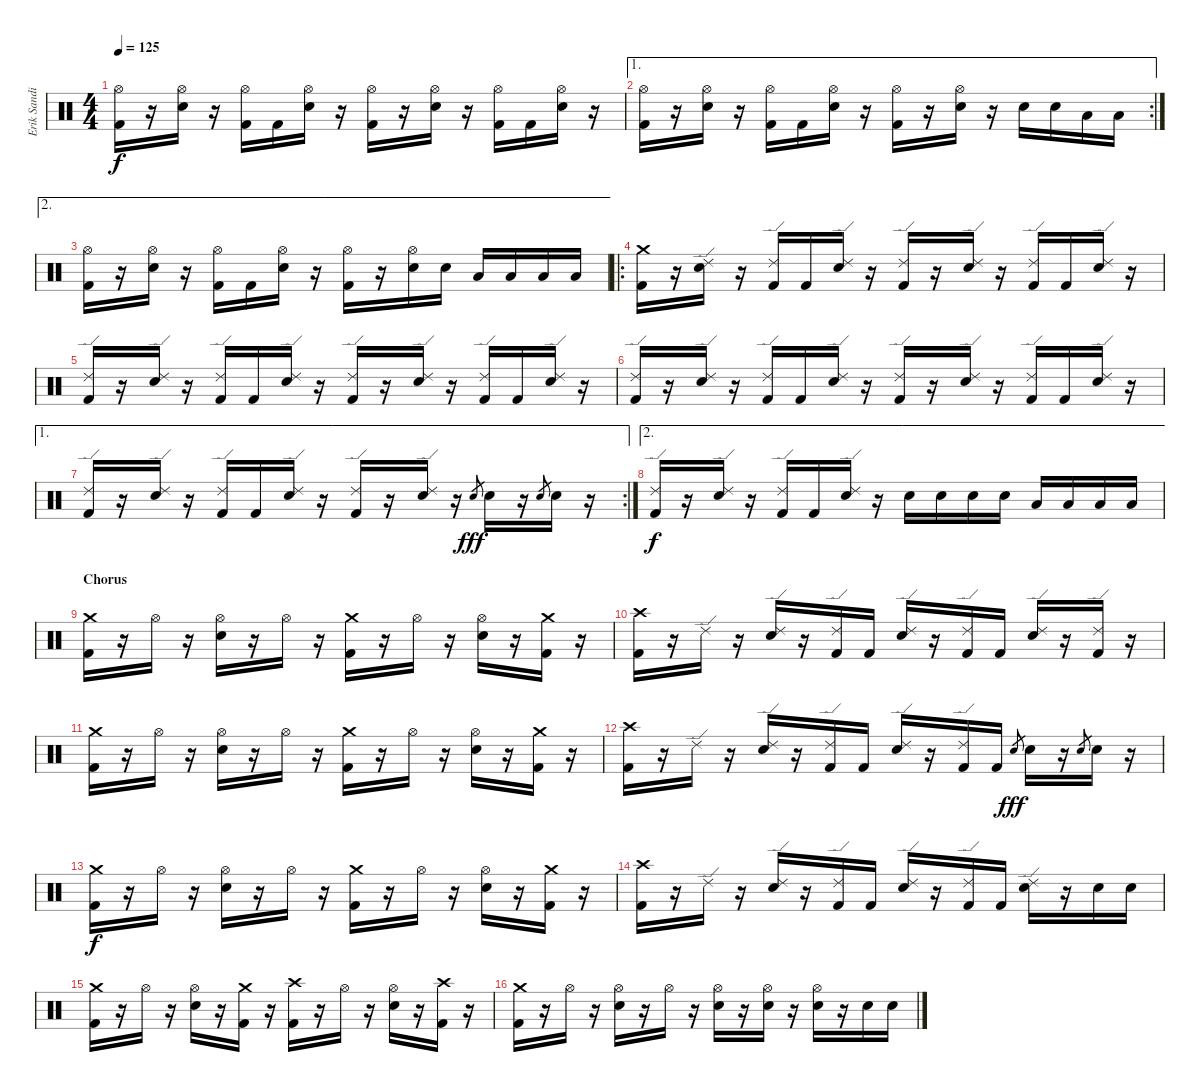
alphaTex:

\track ("Erik Sandin" "Erik Sandi") {instrument percussion}
\staff {score}
\articulation defaults
\ts (4 4)
\tempo 125
\clef neutral
\ks c
("Hi-Hat (open)" "Kick (hit) 2").16{dy f} r.16 ("Hi-Hat (open)" "Snare (hit) 2").16 r.16 ("Hi-Hat (open)" "Kick (hit) 2").16 "Kick (hit) 2".16 ("Hi-Hat (open)" "Snare (hit) 2").16 r.16 ("Hi-Hat (open)" "Kick (hit) 2").16 r.16 ("Hi-Hat (open)" "Snare (hit) 2").16 r.16 ("Hi-Hat (open)" "Kick (hit) 2").16 "Kick (hit) 2".16 ("Hi-Hat (open)" "Snare (hit) 2").16 r.16 |
\ae 1
\rc 2
("Hi-Hat (open)" "Kick (hit) 2").16 r.16 ("Hi-Hat (open)" "Snare (hit) 2").16 r.16 ("Hi-Hat (open)" "Kick (hit) 2").16 "Kick (hit) 2".16 ("Hi-Hat (open)" "Snare (hit) 2").16 r.16 ("Hi-Hat (open)" "Kick (hit) 2").16 r.16 ("Hi-Hat (open)" "Snare (hit) 2").16 r.16 "Snare (hit) 2".16 "Snare (hit) 2".16 "Low Tom (hit)".16 "Low Tom (hit)".16 |
\ae 2
("Hi-Hat (open)" "Kick (hit) 2").16 r.16 ("Hi-Hat (open)" "Snare (hit) 2").16 r.16 ("Hi-Hat (open)" "Kick (hit) 2").16 "Kick (hit) 2".16 ("Hi-Hat (open)" "Snare (hit) 2").16 r.16 ("Hi-Hat (open)" "Kick (hit) 2").16 r.16 ("Hi-Hat (open)" "Snare (hit) 2").16 "Snare (hit) 2".16 "Low Tom (hit)".16 "Low Tom (hit)".16 "Low Floor Tom (hit)".16 "Low Floor Tom (hit)".16 |
\ro
("Crash medium (hit)" "Kick (hit) 2").16 r.16 ("Ride (edge) 2" "Snare (hit) 2").16 r.16 ("Ride (edge) 2" "Kick (hit) 2").16 "Kick (hit) 2".16 ("Ride (edge) 2" "Snare (hit) 2").16 r.16 ("Ride (edge) 2" "Kick (hit) 2").16 r.16 ("Ride (edge) 2" "Snare (hit) 2").16 r.16 ("Ride (edge) 2" "Kick (hit) 2").16 "Kick (hit) 2".16 ("Ride (edge) 2" "Snare (hit) 2").16 r.16 |
("Ride (edge) 2" "Kick (hit) 2").16 r.16 ("Ride (edge) 2" "Snare (hit) 2").16 r.16 ("Ride (edge) 2" "Kick (hit) 2").16 "Kick (hit) 2".16 ("Ride (edge) 2" "Snare (hit) 2").16 r.16 ("Ride (edge) 2" "Kick (hit) 2").16 r.16 ("Ride (edge) 2" "Snare (hit) 2").16 r.16 ("Ride (edge) 2" "Kick (hit) 2").16 "Kick (hit) 2".16 ("Ride (edge) 2" "Snare (hit) 2").16 r.16 |
("Ride (edge) 2" "Kick (hit) 2").16 r.16 ("Ride (edge) 2" "Snare (hit) 2").16 r.16 ("Ride (edge) 2" "Kick (hit) 2").16 "Kick (hit) 2".16 ("Ride (edge) 2" "Snare (hit) 2").16 r.16 ("Ride (edge) 2" "Kick (hit) 2").16 r.16 ("Ride (edge) 2" "Snare (hit) 2").16 r.16 ("Ride (edge) 2" "Kick (hit) 2").16 "Kick (hit) 2".16 ("Ride (edge) 2" "Snare (hit) 2").16 r.16 |
\ae 1
\rc 2
("Ride (edge) 2" "Kick (hit) 2").16 r.16 ("Ride (edge) 2" "Snare (hit) 2").16 r.16 ("Ride (edge) 2" "Kick (hit) 2").16 "Kick (hit) 2".16 ("Ride (edge) 2" "Snare (hit) 2").16 r.16 ("Ride (edge) 2" "Kick (hit) 2").16 r.16 ("Ride (edge) 2" "Snare (hit) 2").16 r.16 "Snare (hit) 2".8{gr dy fff} "Snare (hit) 2".16 r.16 "Snare (hit) 2".8{gr} "Snare (hit) 2".16 r.16 |
\ae 2
("Ride (edge) 2" "Kick (hit) 2").16{dy f} r.16 ("Ride (edge) 2" "Snare (hit) 2").16 r.16 ("Ride (edge) 2" "Kick (hit) 2").16 "Kick (hit) 2".16 ("Ride (edge) 2" "Snare (hit) 2").16 r.16 "Snare (hit) 2".16 "Snare (hit) 2".16 "Snare (hit) 2".16 "Snare (hit) 2".16 "Low Tom (hit)".16 "Low Tom (hit)".16 "Low Tom (hit)".16 "Low Tom (hit)".16 |
\section ("" "Chorus")
("Crash medium (hit)" "Kick (hit) 2").16 r.16 "Hi-Hat (open)".16 r.16 ("Hi-Hat (open)" "Snare (hit) 2").16 r.16 "Hi-Hat (open)".16 r.16 ("Crash medium (hit)" "Kick (hit) 2").16 r.16 "Hi-Hat (open)".16 r.16 ("Hi-Hat (open)" "Snare (hit) 2").16 r.16 ("Crash medium (hit)" "Kick (hit) 2").16 r.16 |
("Crash high (hit)" "Kick (hit) 2").16 r.16 "Ride (edge) 2".16 r.16 ("Ride (edge) 2" "Snare (hit) 2").16 r.16 ("Ride (edge) 2" "Kick (hit) 2").16 "Kick (hit) 2".16 ("Ride (edge) 2" "Snare (hit) 2").16 r.16 ("Ride (edge) 2" "Kick (hit) 2").16 "Kick (hit) 2".16 ("Ride (edge) 2" "Snare (hit) 2").16 r.16 ("Ride (edge) 2" "Kick (hit) 2").16 r.16 |
("Crash medium (hit)" "Kick (hit) 2").16 r.16 "Hi-Hat (open)".16 r.16 ("Hi-Hat (open)" "Snare (hit) 2").16 r.16 "Hi-Hat (open)".16 r.16 ("Crash medium (hit)" "Kick (hit) 2").16 r.16 "Hi-Hat (open)".16 r.16 ("Hi-Hat (open)" "Snare (hit) 2").16 r.16 ("Crash medium (hit)" "Kick (hit) 2").16 r.16 |
("Crash high (hit)" "Kick (hit) 2").16 r.16 "Ride (edge) 2".16 r.16 ("Ride (edge) 2" "Snare (hit) 2").16 r.16 ("Ride (edge) 2" "Kick (hit) 2").16 "Kick (hit) 2".16 ("Ride (edge) 2" "Snare (hit) 2").16 r.16 ("Ride (edge) 2" "Kick (hit) 2").16 "Kick (hit) 2".16 "Snare (hit) 2".8{gr dy fff} "Snare (hit) 2".16 r.16 "Snare (hit) 2".8{gr} "Snare (hit) 2".16 r.16 |
("Crash medium (hit)" "Kick (hit) 2").16{dy f} r.16 "Hi-Hat (open)".16 r.16 ("Hi-Hat (open)" "Snare (hit) 2").16 r.16 "Hi-Hat (open)".16 r.16 ("Crash medium (hit)" "Kick (hit) 2").16 r.16 "Hi-Hat (open)".16 r.16 ("Hi-Hat (open)" "Snare (hit) 2").16 r.16 ("Crash medium (hit)" "Kick (hit) 2").16 r.16 |
("Crash high (hit)" "Kick (hit) 2").16 r.16 "Ride (edge) 2".16 r.16 ("Ride (edge) 2" "Snare (hit) 2").16 r.16 ("Ride (edge) 2" "Kick (hit) 2").16 "Kick (hit) 2".16 ("Ride (edge) 2" "Snare (hit) 2").16 r.16 ("Ride (edge) 2" "Kick (hit) 2").16 "Kick (hit) 2".16 ("Ride (edge) 2" "Snare (hit) 2").16 r.16 "Snare (hit) 2".16 "Snare (hit) 2".16 |
("Crash medium (hit)" "Kick (hit) 2").16 r.16 "Hi-Hat (open)".16 r.16 ("Hi-Hat (open)" "Snare (hit) 2").16 r.16 ("Crash medium (hit)" "Kick (hit) 2").16 r.16 ("Crash high (hit)" "Kick (hit) 2").16 r.16 "Hi-Hat (open)".16 r.16 ("Hi-Hat (open)" "Snare (hit) 2").16 r.16 ("Crash high (hit)" "Kick (hit) 2").16 r.16 |
("Crash medium (hit)" "Kick (hit) 2").16 r.16 "Hi-Hat (open)".16 r.16 ("Hi-Hat (open)" "Snare (hit) 2").16 r.16 "Hi-Hat (open)".16 r.16 ("Hi-Hat (open)" "Snare (hit) 2").16 r.16 ("Hi-Hat (open)" "Snare (hit) 2").16 r.16 ("Hi-Hat (open)" "Snare (hit) 2").16 r.16 "Snare (hit) 2".16 "Snare (hit) 2".16
